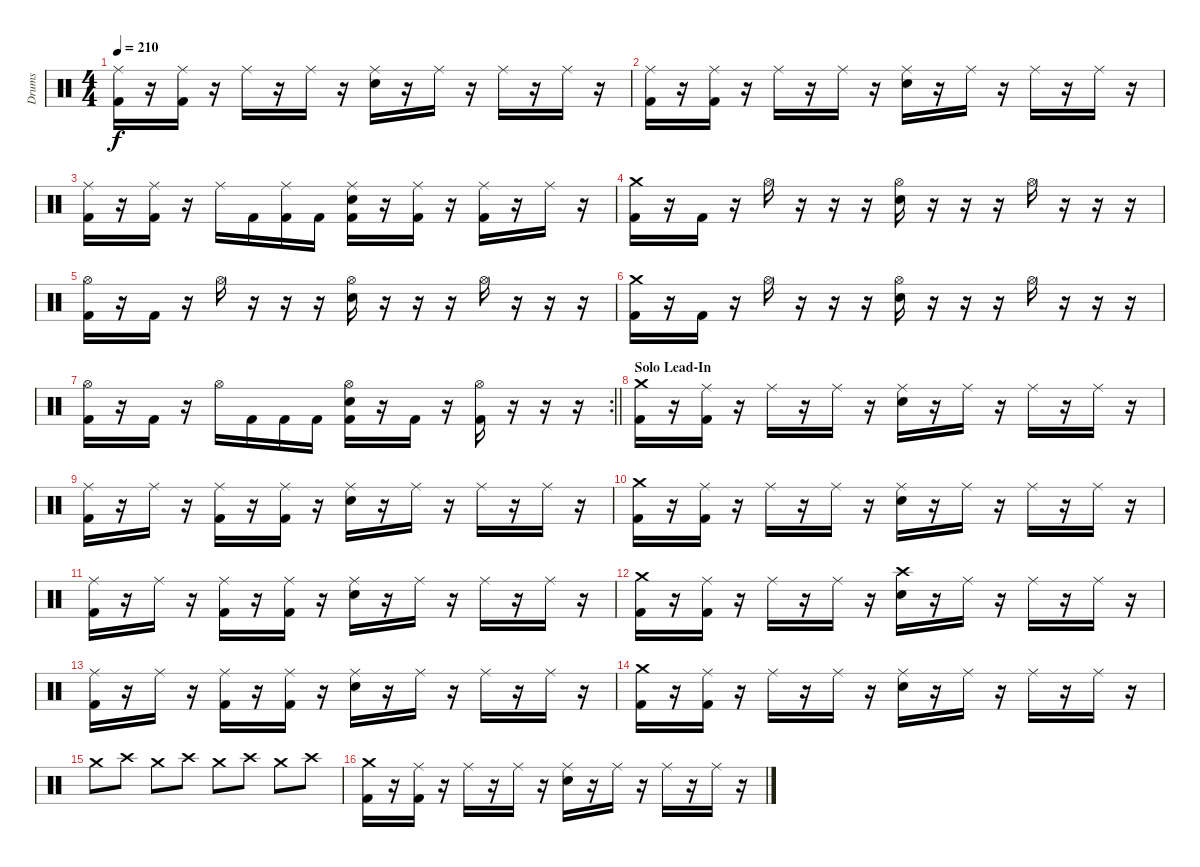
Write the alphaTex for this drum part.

\track ("Drums" "Drums") {instrument percussion}
\staff {score}
\articulation defaults
\ts (4 4)
\tempo 210
\clef neutral
\ks c
("Ride (middle)" "Kick (hit) 2").16{dy f} r.16 ("Ride (middle)" "Kick (hit) 2").16 r.16 "Ride (middle)".16 r.16 "Ride (middle)".16 r.16 ("Ride (middle)" "Electric Snare (hit)").16 r.16 "Ride (middle)".16 r.16 "Ride (middle)".16 r.16 "Ride (middle)".16 r.16 |
("Ride (middle)" "Kick (hit) 2").16 r.16 ("Ride (middle)" "Kick (hit) 2").16 r.16 "Ride (middle)".16 r.16 "Ride (middle)".16 r.16 ("Ride (middle)" "Electric Snare (hit)").16 r.16 "Ride (middle)".16 r.16 "Ride (middle)".16 r.16 "Ride (middle)".16 r.16 |
("Ride (middle)" "Kick (hit) 2").16 r.16 ("Ride (middle)" "Kick (hit) 2").16 r.16 "Ride (middle)".16 "Kick (hit) 2".16 ("Ride (middle)" "Kick (hit) 2").16 "Kick (hit) 2".16 ("Ride (middle)" "Electric Snare (hit)" "Kick (hit) 2").16 r.16 ("Ride (middle)" "Kick (hit) 2").16 r.16 ("Ride (middle)" "Kick (hit) 2").16 r.16 "Ride (middle)".16 r.16 |
("Crash medium (hit)" "Kick (hit) 2").16 r.16 "Kick (hit) 2".16 r.16 "Hi-Hat (open)".16 r.16 r.16 r.16 ("Hi-Hat (open)" "Electric Snare (hit)").16 r.16 r.16 r.16 "Hi-Hat (open)".16 r.16 r.16 r.16 |
("Hi-Hat (open)" "Kick (hit) 2").16 r.16 "Kick (hit) 2".16 r.16 "Hi-Hat (open)".16 r.16 r.16 r.16 ("Hi-Hat (open)" "Electric Snare (hit)").16 r.16 r.16 r.16 "Hi-Hat (open)".16 r.16 r.16 r.16 |
("Crash medium (hit)" "Kick (hit) 2").16 r.16 "Kick (hit) 2".16 r.16 "Hi-Hat (open)".16 r.16 r.16 r.16 ("Hi-Hat (open)" "Electric Snare (hit)").16 r.16 r.16 r.16 "Hi-Hat (open)".16 r.16 r.16 r.16 |
\rc 2
\barLineRight lightlight
("Hi-Hat (open)" "Kick (hit) 2").16 r.16 "Kick (hit) 2".16 r.16 "Hi-Hat (open)".16 "Kick (hit) 2".16 "Kick (hit) 2".16 "Kick (hit) 2".16 ("Hi-Hat (open)" "Electric Snare (hit)" "Kick (hit) 2").16 r.16 "Kick (hit) 2".16 r.16 ("Hi-Hat (open)" "Kick (hit) 2").16 r.16 r.16 r.16 |
\section ("" "Solo Lead-In")
("Crash medium (hit)" "Kick (hit) 2").16 r.16 ("Ride (middle)" "Kick (hit) 2").16 r.16 "Ride (middle)".16 r.16 "Ride (middle)".16 r.16 ("Ride (middle)" "Electric Snare (hit)").16 r.16 "Ride (middle)".16 r.16 "Ride (middle)".16 r.16 "Ride (middle)".16 r.16 |
("Ride (middle)" "Kick (hit) 2").16 r.16 "Ride (middle)".16 r.16 ("Ride (middle)" "Kick (hit) 2").16 r.16 ("Ride (middle)" "Kick (hit) 2").16 r.16 ("Ride (middle)" "Electric Snare (hit)").16 r.16 "Ride (middle)".16 r.16 "Ride (middle)".16 r.16 "Ride (middle)".16 r.16 |
("Crash medium (hit)" "Kick (hit) 2").16 r.16 ("Ride (middle)" "Kick (hit) 2").16 r.16 "Ride (middle)".16 r.16 "Ride (middle)".16 r.16 ("Ride (middle)" "Electric Snare (hit)").16 r.16 "Ride (middle)".16 r.16 "Ride (middle)".16 r.16 "Ride (middle)".16 r.16 |
("Ride (middle)" "Kick (hit) 2").16 r.16 "Ride (middle)".16 r.16 ("Ride (middle)" "Kick (hit) 2").16 r.16 ("Ride (middle)" "Kick (hit) 2").16 r.16 ("Ride (middle)" "Electric Snare (hit)").16 r.16 "Ride (middle)".16 r.16 "Ride (middle)".16 r.16 "Ride (middle)".16 r.16 |
("Crash medium (hit)" "Kick (hit) 2").16 r.16 ("Ride (middle)" "Kick (hit) 2").16 r.16 "Ride (middle)".16 r.16 "Ride (middle)".16 r.16 ("Crash high (hit)" "Electric Snare (hit)").16 r.16 "Ride (middle)".16 r.16 "Ride (middle)".16 r.16 "Ride (middle)".16 r.16 |
("Ride (middle)" "Kick (hit) 2").16 r.16 "Ride (middle)".16 r.16 ("Ride (middle)" "Kick (hit) 2").16 r.16 ("Ride (middle)" "Kick (hit) 2").16 r.16 ("Ride (middle)" "Electric Snare (hit)").16 r.16 "Ride (middle)".16 r.16 "Ride (middle)".16 r.16 "Ride (middle)".16 r.16 |
("Crash medium (hit)" "Kick (hit) 2").16 r.16 ("Ride (middle)" "Kick (hit) 2").16 r.16 "Ride (middle)".16 r.16 "Ride (middle)".16 r.16 ("Ride (middle)" "Electric Snare (hit)").16 r.16 "Ride (middle)".16 r.16 "Ride (middle)".16 r.16 "Ride (middle)".16 r.16 |
"Crash medium (hit)".8 "Crash high (hit)".8 "Crash medium (hit)".8 "Crash high (hit)".8 "Crash medium (hit)".8 "Crash high (hit)".8 "Crash medium (hit)".8 "Crash high (hit)".8 |
("Crash medium (hit)" "Kick (hit) 2").16 r.16 ("Ride (middle)" "Kick (hit) 2").16 r.16 "Ride (middle)".16 r.16 "Ride (middle)".16 r.16 ("Ride (middle)" "Electric Snare (hit)").16 r.16 "Ride (middle)".16 r.16 "Ride (middle)".16 r.16 "Ride (middle)".16 r.16
